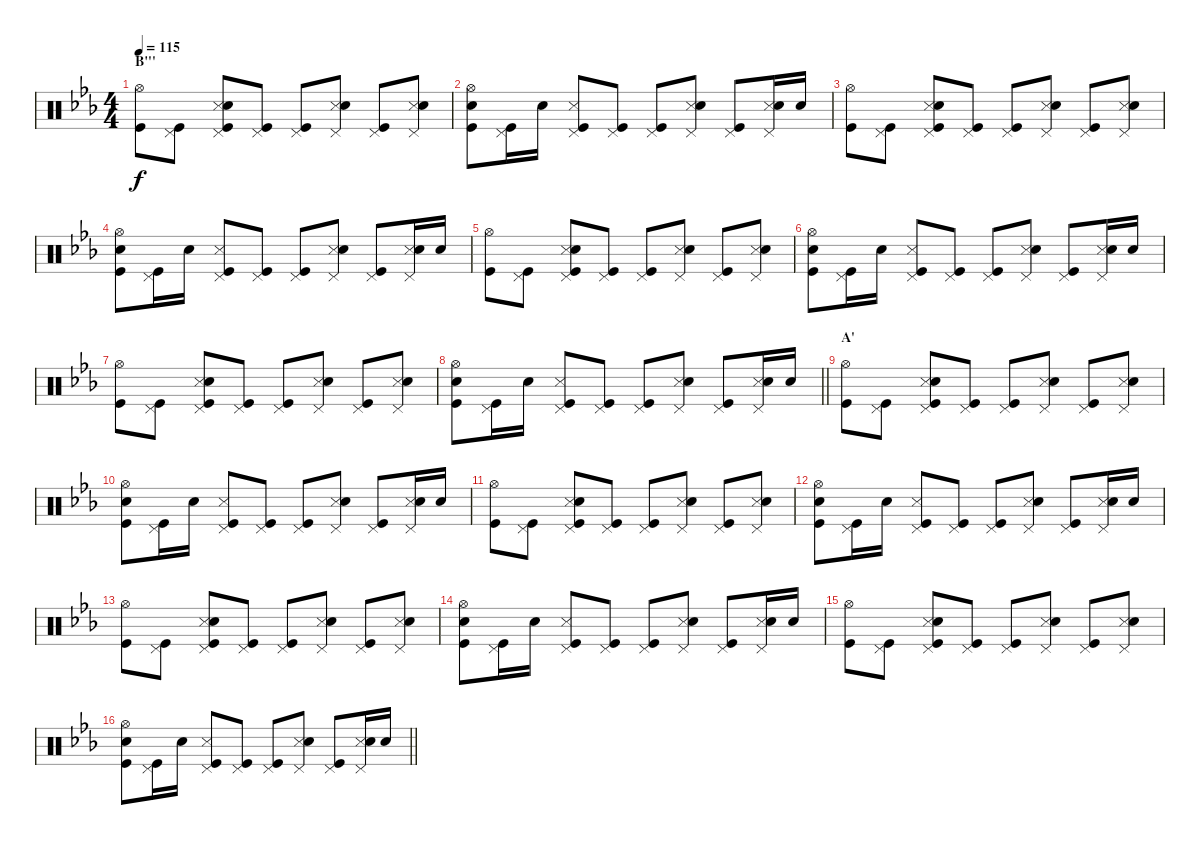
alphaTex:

\track "" {instrument percussion}
\staff {score}
\articulation defaults
\ts (4 4)
\section ("" "B'''")
\tempo 115
\clef neutral
\ks cminor
("Hi-Hat (open)" "Kick (hit)").8{dy f} ("Pedal Hi-Hat (hit)" "Kick (hit)").8 ("Pedal Hi-Hat (hit)" "Snare (side stick) 3" "Electric Snare (hit)" "Kick (hit)").8 ("Pedal Hi-Hat (hit)" "Kick (hit)").8 ("Pedal Hi-Hat (hit)" "Kick (hit)").8 ("Pedal Hi-Hat (hit)" "Snare (side stick) 3" "Electric Snare (hit)").8 ("Pedal Hi-Hat (hit)" "Kick (hit)").8 ("Pedal Hi-Hat (hit)" "Snare (side stick) 3" "Electric Snare (hit)").8 |
("Hi-Hat (open)" "Electric Snare (hit)" "Kick (hit)").8 ("Pedal Hi-Hat (hit)" "Kick (hit)").16 "Electric Snare (hit)".16 ("Pedal Hi-Hat (hit)" "Snare (side stick) 3" "Kick (hit)").8 ("Pedal Hi-Hat (hit)" "Kick (hit)").8 ("Pedal Hi-Hat (hit)" "Kick (hit)").8 ("Pedal Hi-Hat (hit)" "Snare (side stick) 3" "Electric Snare (hit)").8 ("Pedal Hi-Hat (hit)" "Kick (hit)").8 ("Pedal Hi-Hat (hit)" "Snare (side stick) 3" "Electric Snare (hit)").16 "Electric Snare (hit)".16 |
("Hi-Hat (open)" "Kick (hit)").8 ("Pedal Hi-Hat (hit)" "Kick (hit)").8 ("Pedal Hi-Hat (hit)" "Snare (side stick) 3" "Electric Snare (hit)" "Kick (hit)").8 ("Pedal Hi-Hat (hit)" "Kick (hit)").8 ("Pedal Hi-Hat (hit)" "Kick (hit)").8 ("Pedal Hi-Hat (hit)" "Snare (side stick) 3" "Electric Snare (hit)").8 ("Pedal Hi-Hat (hit)" "Kick (hit)").8 ("Pedal Hi-Hat (hit)" "Snare (side stick) 3" "Electric Snare (hit)").8 |
("Hi-Hat (open)" "Electric Snare (hit)" "Kick (hit)").8 ("Pedal Hi-Hat (hit)" "Kick (hit)").16 "Electric Snare (hit)".16 ("Pedal Hi-Hat (hit)" "Snare (side stick) 3" "Kick (hit)").8 ("Pedal Hi-Hat (hit)" "Kick (hit)").8 ("Pedal Hi-Hat (hit)" "Kick (hit)").8 ("Pedal Hi-Hat (hit)" "Snare (side stick) 3" "Electric Snare (hit)").8 ("Pedal Hi-Hat (hit)" "Kick (hit)").8 ("Pedal Hi-Hat (hit)" "Snare (side stick) 3" "Electric Snare (hit)").16 "Electric Snare (hit)".16 |
("Hi-Hat (open)" "Kick (hit)").8 ("Pedal Hi-Hat (hit)" "Kick (hit)").8 ("Pedal Hi-Hat (hit)" "Snare (side stick) 3" "Electric Snare (hit)" "Kick (hit)").8 ("Pedal Hi-Hat (hit)" "Kick (hit)").8 ("Pedal Hi-Hat (hit)" "Kick (hit)").8 ("Pedal Hi-Hat (hit)" "Snare (side stick) 3" "Electric Snare (hit)").8 ("Pedal Hi-Hat (hit)" "Kick (hit)").8 ("Pedal Hi-Hat (hit)" "Snare (side stick) 3" "Electric Snare (hit)").8 |
("Hi-Hat (open)" "Electric Snare (hit)" "Kick (hit)").8 ("Pedal Hi-Hat (hit)" "Kick (hit)").16 "Electric Snare (hit)".16 ("Pedal Hi-Hat (hit)" "Snare (side stick) 3" "Kick (hit)").8 ("Pedal Hi-Hat (hit)" "Kick (hit)").8 ("Pedal Hi-Hat (hit)" "Kick (hit)").8 ("Pedal Hi-Hat (hit)" "Snare (side stick) 3" "Electric Snare (hit)").8 ("Pedal Hi-Hat (hit)" "Kick (hit)").8 ("Pedal Hi-Hat (hit)" "Snare (side stick) 3" "Electric Snare (hit)").16 "Electric Snare (hit)".16 |
("Hi-Hat (open)" "Kick (hit)").8 ("Pedal Hi-Hat (hit)" "Kick (hit)").8 ("Pedal Hi-Hat (hit)" "Snare (side stick) 3" "Electric Snare (hit)" "Kick (hit)").8 ("Pedal Hi-Hat (hit)" "Kick (hit)").8 ("Pedal Hi-Hat (hit)" "Kick (hit)").8 ("Pedal Hi-Hat (hit)" "Snare (side stick) 3" "Electric Snare (hit)").8 ("Pedal Hi-Hat (hit)" "Kick (hit)").8 ("Pedal Hi-Hat (hit)" "Snare (side stick) 3" "Electric Snare (hit)").8 |
\barLineRight lightlight
("Hi-Hat (open)" "Electric Snare (hit)" "Kick (hit)").8 ("Pedal Hi-Hat (hit)" "Kick (hit)").16 "Electric Snare (hit)".16 ("Pedal Hi-Hat (hit)" "Snare (side stick) 3" "Kick (hit)").8 ("Pedal Hi-Hat (hit)" "Kick (hit)").8 ("Pedal Hi-Hat (hit)" "Kick (hit)").8 ("Pedal Hi-Hat (hit)" "Snare (side stick) 3" "Electric Snare (hit)").8 ("Pedal Hi-Hat (hit)" "Kick (hit)").8 ("Pedal Hi-Hat (hit)" "Snare (side stick) 3" "Electric Snare (hit)").16 "Electric Snare (hit)".16 |
\section ("" "A'")
("Hi-Hat (open)" "Kick (hit)").8 ("Pedal Hi-Hat (hit)" "Kick (hit)").8 ("Pedal Hi-Hat (hit)" "Snare (side stick) 3" "Electric Snare (hit)" "Kick (hit)").8 ("Pedal Hi-Hat (hit)" "Kick (hit)").8 ("Pedal Hi-Hat (hit)" "Kick (hit)").8 ("Pedal Hi-Hat (hit)" "Snare (side stick) 3" "Electric Snare (hit)").8 ("Pedal Hi-Hat (hit)" "Kick (hit)").8 ("Pedal Hi-Hat (hit)" "Snare (side stick) 3" "Electric Snare (hit)").8 |
("Hi-Hat (open)" "Electric Snare (hit)" "Kick (hit)").8 ("Pedal Hi-Hat (hit)" "Kick (hit)").16 "Electric Snare (hit)".16 ("Pedal Hi-Hat (hit)" "Snare (side stick) 3" "Kick (hit)").8 ("Pedal Hi-Hat (hit)" "Kick (hit)").8 ("Pedal Hi-Hat (hit)" "Kick (hit)").8 ("Pedal Hi-Hat (hit)" "Snare (side stick) 3" "Electric Snare (hit)").8 ("Pedal Hi-Hat (hit)" "Kick (hit)").8 ("Pedal Hi-Hat (hit)" "Snare (side stick) 3" "Electric Snare (hit)").16 "Electric Snare (hit)".16 |
("Hi-Hat (open)" "Kick (hit)").8 ("Pedal Hi-Hat (hit)" "Kick (hit)").8 ("Pedal Hi-Hat (hit)" "Snare (side stick) 3" "Electric Snare (hit)" "Kick (hit)").8 ("Pedal Hi-Hat (hit)" "Kick (hit)").8 ("Pedal Hi-Hat (hit)" "Kick (hit)").8 ("Pedal Hi-Hat (hit)" "Snare (side stick) 3" "Electric Snare (hit)").8 ("Pedal Hi-Hat (hit)" "Kick (hit)").8 ("Pedal Hi-Hat (hit)" "Snare (side stick) 3" "Electric Snare (hit)").8 |
("Hi-Hat (open)" "Electric Snare (hit)" "Kick (hit)").8 ("Pedal Hi-Hat (hit)" "Kick (hit)").16 "Electric Snare (hit)".16 ("Pedal Hi-Hat (hit)" "Snare (side stick) 3" "Kick (hit)").8 ("Pedal Hi-Hat (hit)" "Kick (hit)").8 ("Pedal Hi-Hat (hit)" "Kick (hit)").8 ("Pedal Hi-Hat (hit)" "Snare (side stick) 3" "Electric Snare (hit)").8 ("Pedal Hi-Hat (hit)" "Kick (hit)").8 ("Pedal Hi-Hat (hit)" "Snare (side stick) 3" "Electric Snare (hit)").16 "Electric Snare (hit)".16 |
("Hi-Hat (open)" "Kick (hit)").8 ("Pedal Hi-Hat (hit)" "Kick (hit)").8 ("Pedal Hi-Hat (hit)" "Snare (side stick) 3" "Electric Snare (hit)" "Kick (hit)").8 ("Pedal Hi-Hat (hit)" "Kick (hit)").8 ("Pedal Hi-Hat (hit)" "Kick (hit)").8 ("Pedal Hi-Hat (hit)" "Snare (side stick) 3" "Electric Snare (hit)").8 ("Pedal Hi-Hat (hit)" "Kick (hit)").8 ("Pedal Hi-Hat (hit)" "Snare (side stick) 3" "Electric Snare (hit)").8 |
("Hi-Hat (open)" "Electric Snare (hit)" "Kick (hit)").8 ("Pedal Hi-Hat (hit)" "Kick (hit)").16 "Electric Snare (hit)".16 ("Pedal Hi-Hat (hit)" "Snare (side stick) 3" "Kick (hit)").8 ("Pedal Hi-Hat (hit)" "Kick (hit)").8 ("Pedal Hi-Hat (hit)" "Kick (hit)").8 ("Pedal Hi-Hat (hit)" "Snare (side stick) 3" "Electric Snare (hit)").8 ("Pedal Hi-Hat (hit)" "Kick (hit)").8 ("Pedal Hi-Hat (hit)" "Snare (side stick) 3" "Electric Snare (hit)").16 "Electric Snare (hit)".16 |
("Hi-Hat (open)" "Kick (hit)").8 ("Pedal Hi-Hat (hit)" "Kick (hit)").8 ("Pedal Hi-Hat (hit)" "Snare (side stick) 3" "Electric Snare (hit)" "Kick (hit)").8 ("Pedal Hi-Hat (hit)" "Kick (hit)").8 ("Pedal Hi-Hat (hit)" "Kick (hit)").8 ("Pedal Hi-Hat (hit)" "Snare (side stick) 3" "Electric Snare (hit)").8 ("Pedal Hi-Hat (hit)" "Kick (hit)").8 ("Pedal Hi-Hat (hit)" "Snare (side stick) 3" "Electric Snare (hit)").8 |
\barLineRight lightlight
("Hi-Hat (open)" "Electric Snare (hit)" "Kick (hit)").8 ("Pedal Hi-Hat (hit)" "Kick (hit)").16 "Electric Snare (hit)".16 ("Pedal Hi-Hat (hit)" "Snare (side stick) 3" "Kick (hit)").8 ("Pedal Hi-Hat (hit)" "Kick (hit)").8 ("Pedal Hi-Hat (hit)" "Kick (hit)").8 ("Pedal Hi-Hat (hit)" "Snare (side stick) 3" "Electric Snare (hit)").8 ("Pedal Hi-Hat (hit)" "Kick (hit)").8 ("Pedal Hi-Hat (hit)" "Snare (side stick) 3" "Electric Snare (hit)").16 "Electric Snare (hit)".16
